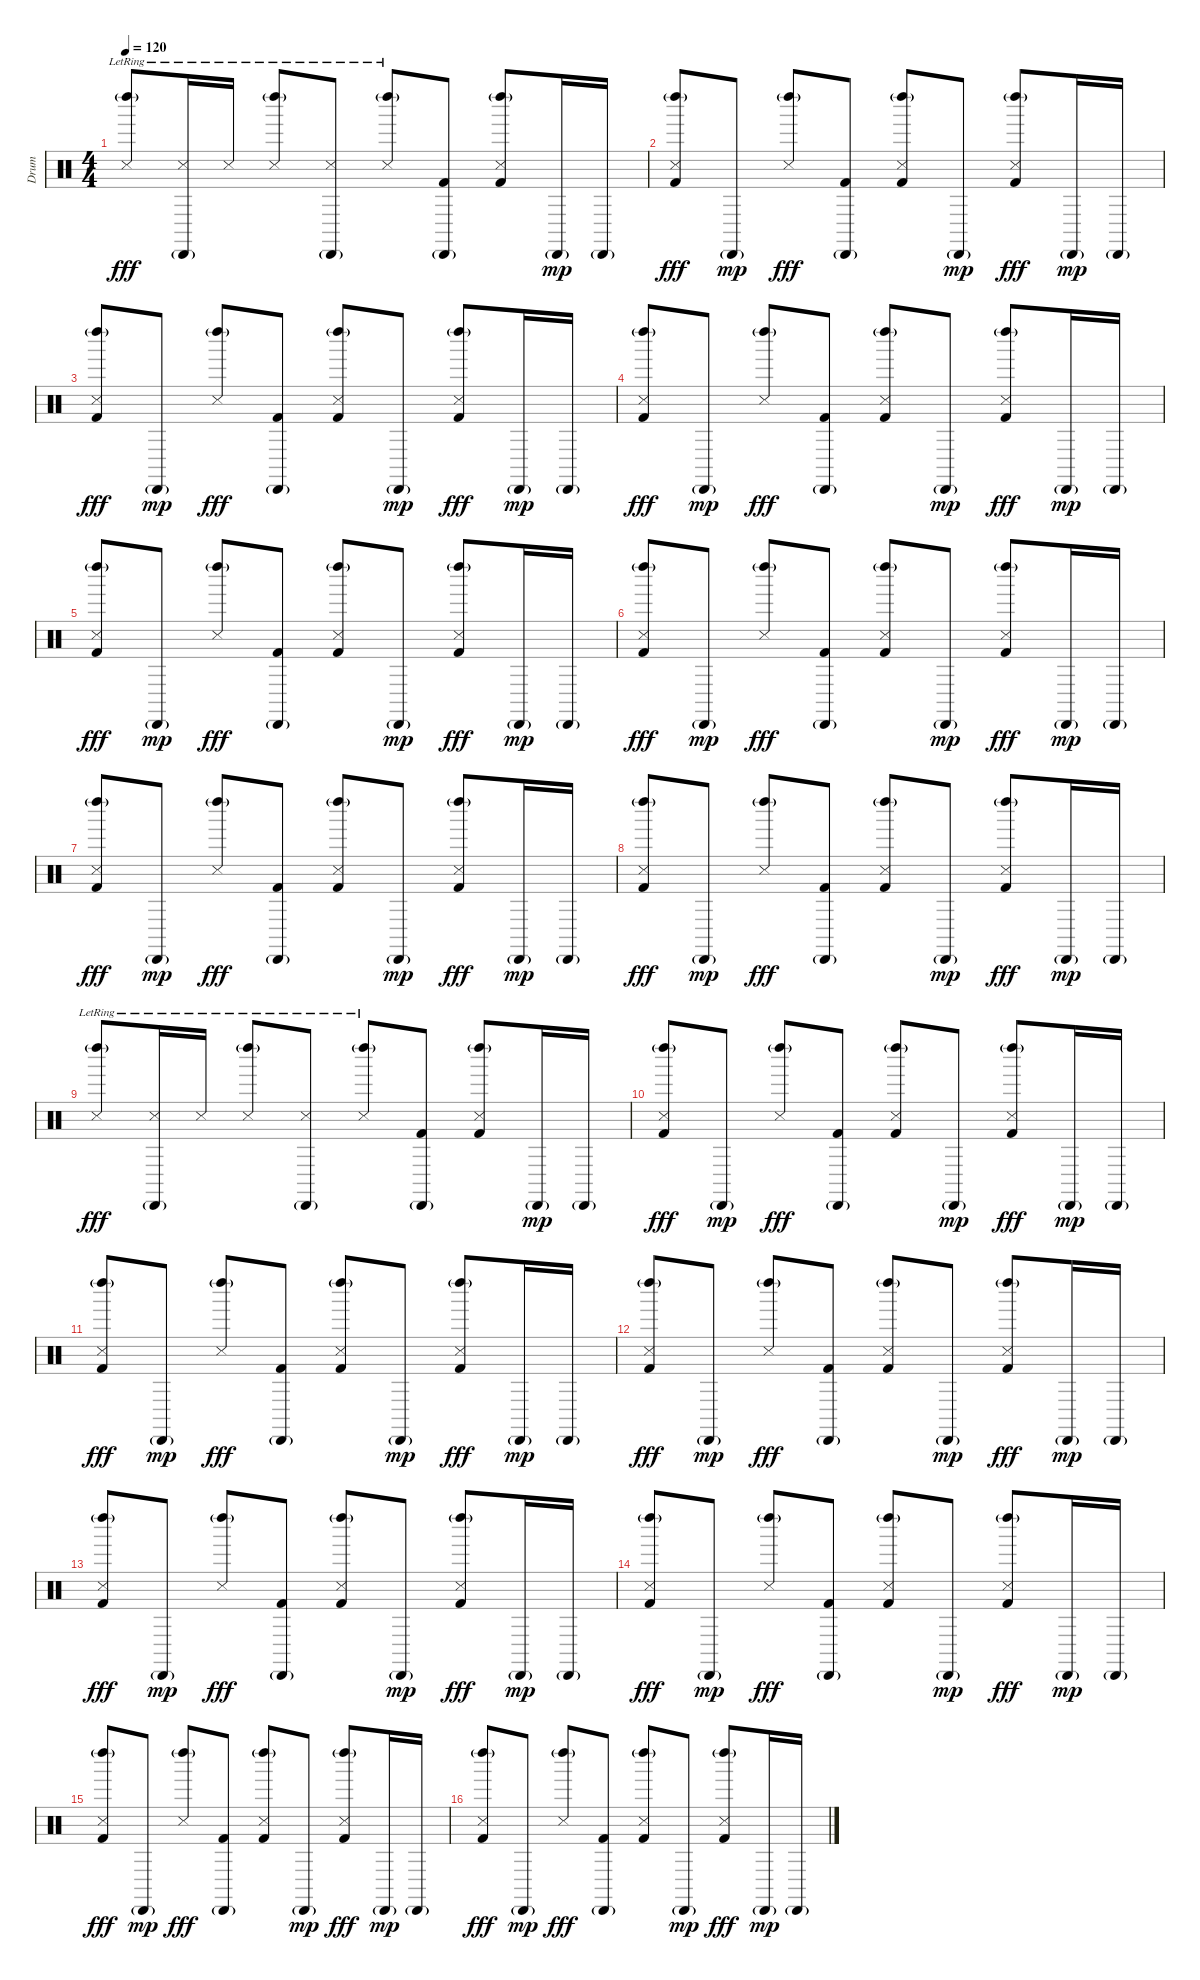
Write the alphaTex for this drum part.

\track ("Drum" "Drum") {instrument percussion}
\staff {score}
\articulation defaults
\ts (4 4)
\tempo 120
\clef neutral
\ks c
("Left Maraca (hit)"{g} "Snare (side stick) 3"{lr}).8{dy fff} ("Cabasa (hit)"{g} "Snare (side stick) 3"{lr}).16 "Snare (side stick) 3"{lr}.16 ("Left Maraca (hit)"{g} "Snare (side stick) 3"{lr}).8 ("Cabasa (hit)"{g} "Snare (side stick) 3"{lr}).8 ("Left Maraca (hit)"{g} "Snare (side stick) 3"{lr}).8 ("Cabasa (hit)"{g} "Kick (hit) 2").8 ("Left Maraca (hit)"{g} "Snare (side stick) 3" "Kick (hit) 2").8 "Cabasa (hit)"{g}.16{dy mp} "Cabasa (hit)"{g}.16 |
("Left Maraca (hit)"{g} "Snare (side stick) 3" "Kick (hit) 2").8{dy fff} "Cabasa (hit)"{g}.8{dy mp} ("Left Maraca (hit)"{g} "Snare (side stick) 3").8{dy fff} ("Cabasa (hit)"{g} "Kick (hit) 2").8 ("Left Maraca (hit)"{g} "Snare (side stick) 3" "Kick (hit) 2").8 "Cabasa (hit)"{g}.8{dy mp} ("Left Maraca (hit)"{g} "Snare (side stick) 3" "Kick (hit) 2").8{dy fff} "Cabasa (hit)"{g}.16{dy mp} "Cabasa (hit)"{g}.16 |
("Left Maraca (hit)"{g} "Snare (side stick) 3" "Kick (hit) 2").8{dy fff} "Cabasa (hit)"{g}.8{dy mp} ("Left Maraca (hit)"{g} "Snare (side stick) 3").8{dy fff} ("Cabasa (hit)"{g} "Kick (hit) 2").8 ("Left Maraca (hit)"{g} "Snare (side stick) 3" "Kick (hit) 2").8 "Cabasa (hit)"{g}.8{dy mp} ("Left Maraca (hit)"{g} "Snare (side stick) 3" "Kick (hit) 2").8{dy fff} "Cabasa (hit)"{g}.16{dy mp} "Cabasa (hit)"{g}.16 |
("Left Maraca (hit)"{g} "Snare (side stick) 3" "Kick (hit) 2").8{dy fff} "Cabasa (hit)"{g}.8{dy mp} ("Left Maraca (hit)"{g} "Snare (side stick) 3").8{dy fff} ("Cabasa (hit)"{g} "Kick (hit) 2").8 ("Left Maraca (hit)"{g} "Snare (side stick) 3" "Kick (hit) 2").8 "Cabasa (hit)"{g}.8{dy mp} ("Left Maraca (hit)"{g} "Snare (side stick) 3" "Kick (hit) 2").8{dy fff} "Cabasa (hit)"{g}.16{dy mp} "Cabasa (hit)"{g}.16 |
("Left Maraca (hit)"{g} "Snare (side stick) 3" "Kick (hit) 2").8{dy fff} "Cabasa (hit)"{g}.8{dy mp} ("Left Maraca (hit)"{g} "Snare (side stick) 3").8{dy fff} ("Cabasa (hit)"{g} "Kick (hit) 2").8 ("Left Maraca (hit)"{g} "Snare (side stick) 3" "Kick (hit) 2").8 "Cabasa (hit)"{g}.8{dy mp} ("Left Maraca (hit)"{g} "Snare (side stick) 3" "Kick (hit) 2").8{dy fff} "Cabasa (hit)"{g}.16{dy mp} "Cabasa (hit)"{g}.16 |
("Left Maraca (hit)"{g} "Snare (side stick) 3" "Kick (hit) 2").8{dy fff} "Cabasa (hit)"{g}.8{dy mp} ("Left Maraca (hit)"{g} "Snare (side stick) 3").8{dy fff} ("Cabasa (hit)"{g} "Kick (hit) 2").8 ("Left Maraca (hit)"{g} "Snare (side stick) 3" "Kick (hit) 2").8 "Cabasa (hit)"{g}.8{dy mp} ("Left Maraca (hit)"{g} "Snare (side stick) 3" "Kick (hit) 2").8{dy fff} "Cabasa (hit)"{g}.16{dy mp} "Cabasa (hit)"{g}.16 |
("Left Maraca (hit)"{g} "Snare (side stick) 3" "Kick (hit) 2").8{dy fff} "Cabasa (hit)"{g}.8{dy mp} ("Left Maraca (hit)"{g} "Snare (side stick) 3").8{dy fff} ("Cabasa (hit)"{g} "Kick (hit) 2").8 ("Left Maraca (hit)"{g} "Snare (side stick) 3" "Kick (hit) 2").8 "Cabasa (hit)"{g}.8{dy mp} ("Left Maraca (hit)"{g} "Snare (side stick) 3" "Kick (hit) 2").8{dy fff} "Cabasa (hit)"{g}.16{dy mp} "Cabasa (hit)"{g}.16 |
("Left Maraca (hit)"{g} "Snare (side stick) 3" "Kick (hit) 2").8{dy fff} "Cabasa (hit)"{g}.8{dy mp} ("Left Maraca (hit)"{g} "Snare (side stick) 3").8{dy fff} ("Cabasa (hit)"{g} "Kick (hit) 2").8 ("Left Maraca (hit)"{g} "Snare (side stick) 3" "Kick (hit) 2").8 "Cabasa (hit)"{g}.8{dy mp} ("Left Maraca (hit)"{g} "Snare (side stick) 3" "Kick (hit) 2").8{dy fff} "Cabasa (hit)"{g}.16{dy mp} "Cabasa (hit)"{g}.16 |
("Left Maraca (hit)"{g} "Snare (side stick) 3"{lr}).8{dy fff} ("Cabasa (hit)"{g} "Snare (side stick) 3"{lr}).16 "Snare (side stick) 3"{lr}.16 ("Left Maraca (hit)"{g} "Snare (side stick) 3"{lr}).8 ("Cabasa (hit)"{g} "Snare (side stick) 3"{lr}).8 ("Left Maraca (hit)"{g} "Snare (side stick) 3"{lr}).8 ("Cabasa (hit)"{g} "Kick (hit) 2").8 ("Left Maraca (hit)"{g} "Snare (side stick) 3" "Kick (hit) 2").8 "Cabasa (hit)"{g}.16{dy mp} "Cabasa (hit)"{g}.16 |
("Left Maraca (hit)"{g} "Snare (side stick) 3" "Kick (hit) 2").8{dy fff} "Cabasa (hit)"{g}.8{dy mp} ("Left Maraca (hit)"{g} "Snare (side stick) 3").8{dy fff} ("Cabasa (hit)"{g} "Kick (hit) 2").8 ("Left Maraca (hit)"{g} "Snare (side stick) 3" "Kick (hit) 2").8 "Cabasa (hit)"{g}.8{dy mp} ("Left Maraca (hit)"{g} "Snare (side stick) 3" "Kick (hit) 2").8{dy fff} "Cabasa (hit)"{g}.16{dy mp} "Cabasa (hit)"{g}.16 |
("Left Maraca (hit)"{g} "Snare (side stick) 3" "Kick (hit) 2").8{dy fff} "Cabasa (hit)"{g}.8{dy mp} ("Left Maraca (hit)"{g} "Snare (side stick) 3").8{dy fff} ("Cabasa (hit)"{g} "Kick (hit) 2").8 ("Left Maraca (hit)"{g} "Snare (side stick) 3" "Kick (hit) 2").8 "Cabasa (hit)"{g}.8{dy mp} ("Left Maraca (hit)"{g} "Snare (side stick) 3" "Kick (hit) 2").8{dy fff} "Cabasa (hit)"{g}.16{dy mp} "Cabasa (hit)"{g}.16 |
("Left Maraca (hit)"{g} "Snare (side stick) 3" "Kick (hit) 2").8{dy fff} "Cabasa (hit)"{g}.8{dy mp} ("Left Maraca (hit)"{g} "Snare (side stick) 3").8{dy fff} ("Cabasa (hit)"{g} "Kick (hit) 2").8 ("Left Maraca (hit)"{g} "Snare (side stick) 3" "Kick (hit) 2").8 "Cabasa (hit)"{g}.8{dy mp} ("Left Maraca (hit)"{g} "Snare (side stick) 3" "Kick (hit) 2").8{dy fff} "Cabasa (hit)"{g}.16{dy mp} "Cabasa (hit)"{g}.16 |
("Left Maraca (hit)"{g} "Snare (side stick) 3" "Kick (hit) 2").8{dy fff} "Cabasa (hit)"{g}.8{dy mp} ("Left Maraca (hit)"{g} "Snare (side stick) 3").8{dy fff} ("Cabasa (hit)"{g} "Kick (hit) 2").8 ("Left Maraca (hit)"{g} "Snare (side stick) 3" "Kick (hit) 2").8 "Cabasa (hit)"{g}.8{dy mp} ("Left Maraca (hit)"{g} "Snare (side stick) 3" "Kick (hit) 2").8{dy fff} "Cabasa (hit)"{g}.16{dy mp} "Cabasa (hit)"{g}.16 |
("Left Maraca (hit)"{g} "Snare (side stick) 3" "Kick (hit) 2").8{dy fff} "Cabasa (hit)"{g}.8{dy mp} ("Left Maraca (hit)"{g} "Snare (side stick) 3").8{dy fff} ("Cabasa (hit)"{g} "Kick (hit) 2").8 ("Left Maraca (hit)"{g} "Snare (side stick) 3" "Kick (hit) 2").8 "Cabasa (hit)"{g}.8{dy mp} ("Left Maraca (hit)"{g} "Snare (side stick) 3" "Kick (hit) 2").8{dy fff} "Cabasa (hit)"{g}.16{dy mp} "Cabasa (hit)"{g}.16 |
("Left Maraca (hit)"{g} "Snare (side stick) 3" "Kick (hit) 2").8{dy fff} "Cabasa (hit)"{g}.8{dy mp} ("Left Maraca (hit)"{g} "Snare (side stick) 3").8{dy fff} ("Cabasa (hit)"{g} "Kick (hit) 2").8 ("Left Maraca (hit)"{g} "Snare (side stick) 3" "Kick (hit) 2").8 "Cabasa (hit)"{g}.8{dy mp} ("Left Maraca (hit)"{g} "Snare (side stick) 3" "Kick (hit) 2").8{dy fff} "Cabasa (hit)"{g}.16{dy mp} "Cabasa (hit)"{g}.16 |
("Left Maraca (hit)"{g} "Snare (side stick) 3" "Kick (hit) 2").8{dy fff} "Cabasa (hit)"{g}.8{dy mp} ("Left Maraca (hit)"{g} "Snare (side stick) 3").8{dy fff} ("Cabasa (hit)"{g} "Kick (hit) 2").8 ("Left Maraca (hit)"{g} "Snare (side stick) 3" "Kick (hit) 2").8 "Cabasa (hit)"{g}.8{dy mp} ("Left Maraca (hit)"{g} "Snare (side stick) 3" "Kick (hit) 2").8{dy fff} "Cabasa (hit)"{g}.16{dy mp} "Cabasa (hit)"{g}.16
